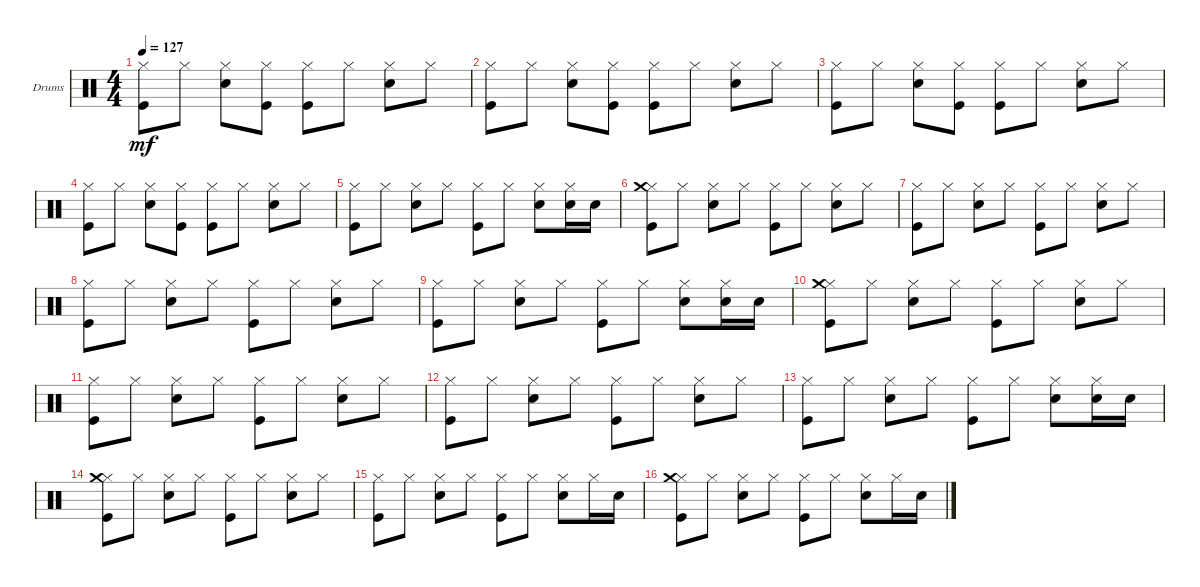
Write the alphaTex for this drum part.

\defaultSystemsLayout 4
\bracketExtendMode groupsimilarinstruments
\firstSystemTrackNameOrientation horizontal
\otherSystemsTrackNameOrientation horizontal
\track ("Drumkit" "Drums") {instrument percussion}
\staff {score}
\articulation defaults
\ts (4 4)
\tempo 127
\clef neutral
\ks c
("Hi-Hat (closed)" "Kick (hit)").8{dy mf} "Hi-Hat (closed)".8 ("Snare (hit) 2" "Hi-Hat (closed)").8 ("Kick (hit)" "Hi-Hat (closed)").8 ("Kick (hit)" "Hi-Hat (closed)").8 "Hi-Hat (closed)".8 ("Snare (hit) 2" "Hi-Hat (closed)").8 "Hi-Hat (closed)".8 |
("Hi-Hat (closed)" "Kick (hit)").8 "Hi-Hat (closed)".8 ("Snare (hit) 2" "Hi-Hat (closed)").8 ("Kick (hit)" "Hi-Hat (closed)").8 ("Kick (hit)" "Hi-Hat (closed)").8 "Hi-Hat (closed)".8 ("Snare (hit) 2" "Hi-Hat (closed)").8 "Hi-Hat (closed)".8 |
("Hi-Hat (closed)" "Kick (hit)").8 "Hi-Hat (closed)".8 ("Snare (hit) 2" "Hi-Hat (closed)").8 ("Kick (hit)" "Hi-Hat (closed)").8 ("Kick (hit)" "Hi-Hat (closed)").8 "Hi-Hat (closed)".8 ("Snare (hit) 2" "Hi-Hat (closed)").8 "Hi-Hat (closed)".8 |
("Hi-Hat (closed)" "Kick (hit)").8 "Hi-Hat (closed)".8 ("Snare (hit) 2" "Hi-Hat (closed)").8 ("Kick (hit)" "Hi-Hat (closed)").8 ("Kick (hit)" "Hi-Hat (closed)").8 "Hi-Hat (closed)".8 ("Snare (hit) 2" "Hi-Hat (closed)").8 "Hi-Hat (closed)".8 |
("Hi-Hat (closed)" "Kick (hit)").8 "Hi-Hat (closed)".8 ("Snare (hit) 2" "Hi-Hat (closed)").8 "Hi-Hat (closed)".8 ("Kick (hit)" "Hi-Hat (closed)").8 "Hi-Hat (closed)".8 ("Snare (hit) 2" "Hi-Hat (closed)").8 ("Snare (hit) 2" "Hi-Hat (closed)").16 "Snare (hit) 2".16 |
("Kick (hit)" "Hi-Hat (closed)" "Crash medium (hit)").8 "Hi-Hat (closed)".8 ("Snare (hit) 2" "Hi-Hat (closed)").8 "Hi-Hat (closed)".8 ("Kick (hit)" "Hi-Hat (closed)").8 "Hi-Hat (closed)".8 ("Snare (hit) 2" "Hi-Hat (closed)").8 "Hi-Hat (closed)".8 |
("Kick (hit)" "Hi-Hat (closed)").8 "Hi-Hat (closed)".8 ("Snare (hit) 2" "Hi-Hat (closed)").8 "Hi-Hat (closed)".8 ("Kick (hit)" "Hi-Hat (closed)").8 "Hi-Hat (closed)".8 ("Snare (hit) 2" "Hi-Hat (closed)").8 "Hi-Hat (closed)".8 |
("Kick (hit)" "Hi-Hat (closed)").8 "Hi-Hat (closed)".8 ("Snare (hit) 2" "Hi-Hat (closed)").8 "Hi-Hat (closed)".8 ("Kick (hit)" "Hi-Hat (closed)").8 "Hi-Hat (closed)".8 ("Snare (hit) 2" "Hi-Hat (closed)").8 "Hi-Hat (closed)".8 |
("Kick (hit)" "Hi-Hat (closed)").8 "Hi-Hat (closed)".8 ("Snare (hit) 2" "Hi-Hat (closed)").8 "Hi-Hat (closed)".8 ("Kick (hit)" "Hi-Hat (closed)").8 "Hi-Hat (closed)".8 ("Snare (hit) 2" "Hi-Hat (closed)").8 ("Snare (hit) 2" "Hi-Hat (closed)").16 "Snare (hit) 2".16 |
("Kick (hit)" "Hi-Hat (closed)" "Crash medium (hit)").8 "Hi-Hat (closed)".8 ("Snare (hit) 2" "Hi-Hat (closed)").8 "Hi-Hat (closed)".8 ("Kick (hit)" "Hi-Hat (closed)").8 "Hi-Hat (closed)".8 ("Snare (hit) 2" "Hi-Hat (closed)").8 "Hi-Hat (closed)".8 |
("Kick (hit)" "Hi-Hat (closed)").8 "Hi-Hat (closed)".8 ("Snare (hit) 2" "Hi-Hat (closed)").8 "Hi-Hat (closed)".8 ("Kick (hit)" "Hi-Hat (closed)").8 "Hi-Hat (closed)".8 ("Snare (hit) 2" "Hi-Hat (closed)").8 "Hi-Hat (closed)".8 |
("Kick (hit)" "Hi-Hat (closed)").8 "Hi-Hat (closed)".8 ("Snare (hit) 2" "Hi-Hat (closed)").8 "Hi-Hat (closed)".8 ("Kick (hit)" "Hi-Hat (closed)").8 "Hi-Hat (closed)".8 ("Snare (hit) 2" "Hi-Hat (closed)").8 "Hi-Hat (closed)".8 |
("Kick (hit)" "Hi-Hat (closed)").8 "Hi-Hat (closed)".8 ("Snare (hit) 2" "Hi-Hat (closed)").8 "Hi-Hat (closed)".8 ("Kick (hit)" "Hi-Hat (closed)").8 "Hi-Hat (closed)".8 ("Snare (hit) 2" "Hi-Hat (closed)").8 ("Snare (hit) 2" "Hi-Hat (closed)").16 "Snare (hit) 2".16 |
("Kick (hit)" "Hi-Hat (closed)" "Crash medium (hit)").8 "Hi-Hat (closed)".8 ("Snare (hit) 2" "Hi-Hat (closed)").8 "Hi-Hat (closed)".8 ("Kick (hit)" "Hi-Hat (closed)").8 "Hi-Hat (closed)".8 ("Snare (hit) 2" "Hi-Hat (closed)").8 "Hi-Hat (closed)".8 |
("Kick (hit)" "Hi-Hat (closed)").8 "Hi-Hat (closed)".8 ("Snare (hit) 2" "Hi-Hat (closed)").8 "Hi-Hat (closed)".8 ("Kick (hit)" "Hi-Hat (closed)").8 "Hi-Hat (closed)".8 ("Snare (hit) 2" "Hi-Hat (closed)").8 "Hi-Hat (closed)".16 "Snare (hit) 2".16 |
("Kick (hit)" "Hi-Hat (closed)" "Crash medium (hit)").8 "Hi-Hat (closed)".8 ("Snare (hit) 2" "Hi-Hat (closed)").8 "Hi-Hat (closed)".8 ("Kick (hit)" "Hi-Hat (closed)").8 "Hi-Hat (closed)".8 ("Snare (hit) 2" "Hi-Hat (closed)").8 "Hi-Hat (closed)".16 "Snare (hit) 2".16
